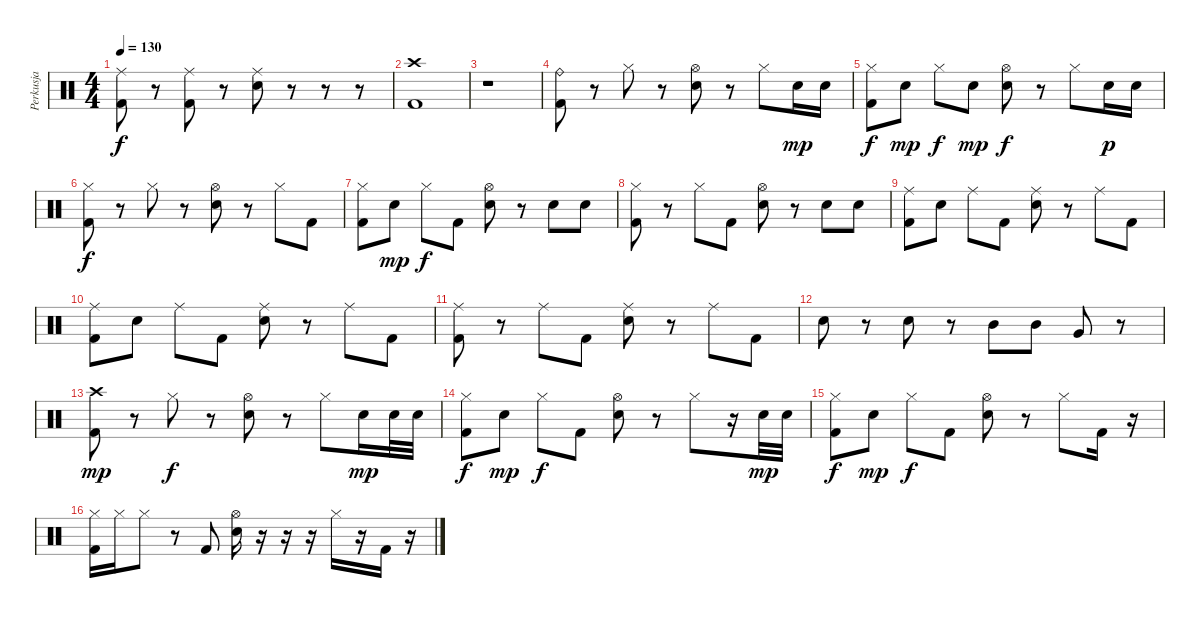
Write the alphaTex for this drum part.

\track ("Perkusja" "Perkusja") {instrument percussion}
\staff {score}
\articulation defaults
\ts (4 4)
\tempo 130
\clef neutral
\ks c
("Ride (middle)" "Kick (hit) 2").8{dy f} r.8 ("Ride (middle)" "Kick (hit) 2").8 r.8 ("Ride (middle)" "Snare (hit) 2").8 r.8 r.8 r.8 |
("Crash high (hit)" "Kick (hit) 2").1 |
r.1 |
("Ride (bell)" "Kick (hit) 2").8{volume 14} r.8 "Hi-Hat (closed)".8 r.8 ("Hi-Hat (open)" "Snare (hit) 2").8 r.8 "Hi-Hat (closed)".8 "Snare (hit) 2".16{dy mp} "Snare (hit) 2".16 |
("Hi-Hat (closed)" "Kick (hit) 2").8{dy f} "Snare (hit) 2".8{dy mp} "Hi-Hat (closed)".8{dy f} "Snare (hit) 2".8{dy mp} ("Hi-Hat (open)" "Snare (hit) 2").8{dy f} r.8 "Hi-Hat (closed)".8 "Snare (hit) 2".16{dy p} "Snare (hit) 2".16 |
("Hi-Hat (closed)" "Kick (hit) 2").8{dy f} r.8 "Hi-Hat (closed)".8 r.8 ("Hi-Hat (open)" "Snare (hit) 2").8 r.8 "Hi-Hat (closed)".8 "Kick (hit) 2".8 |
("Hi-Hat (closed)" "Kick (hit) 2").8 "Snare (hit) 2".8{dy mp} "Hi-Hat (closed)".8{dy f} "Kick (hit) 2".8 ("Hi-Hat (open)" "Snare (hit) 2").8 r.8 "Snare (hit) 2".8 "Snare (hit) 2".8 |
("Hi-Hat (closed)" "Kick (hit) 2").8 r.8 "Hi-Hat (closed)".8 "Kick (hit) 2".8 ("Hi-Hat (open)" "Snare (hit) 2").8 r.8 "Snare (hit) 2".8 "Snare (hit) 2".8 |
("Ride (middle)" "Kick (hit) 2").8 "Snare (hit) 2".8 "Ride (middle)".8 "Kick (hit) 2".8 ("Ride (middle)" "Snare (hit) 2").8 r.8 "Ride (middle)".8 "Kick (hit) 2".8 |
("Ride (middle)" "Kick (hit) 2").8 "Snare (hit) 2".8 "Ride (middle)".8 "Kick (hit) 2".8 ("Ride (middle)" "Snare (hit) 2").8 r.8 "Ride (middle)".8 "Kick (hit) 2".8 |
("Ride (middle)" "Kick (hit) 2").8 r.8 "Ride (middle)".8 "Kick (hit) 2".8 ("Ride (middle)" "Snare (hit) 2").8 r.8 "Ride (middle)".8 "Kick (hit) 2".8 |
"Snare (hit) 2".8 r.8 "Snare (hit) 2".8 r.8 "Mid Tom (hit)".8 "Mid Tom (hit)".8 "Very Low Tom (hit)".8 r.8 |
("Crash high (hit)" "Kick (hit) 2").8{dy mp} r.8 "Hi-Hat (closed)".8{dy f} r.8 ("Hi-Hat (open)" "Snare (hit) 2").8 r.8 "Hi-Hat (closed)".8 "Snare (hit) 2".16{dy mp} "Snare (hit) 2".32 "Snare (hit) 2".32 |
("Hi-Hat (closed)" "Kick (hit) 2").8{dy f} "Snare (hit) 2".8{dy mp} "Hi-Hat (closed)".8{dy f} "Kick (hit) 2".8 ("Hi-Hat (open)" "Snare (hit) 2").8 r.8 "Hi-Hat (closed)".8 r.16 "Snare (hit) 2".32{dy mp} "Snare (hit) 2".32 |
("Hi-Hat (closed)" "Kick (hit) 2").8{dy f} "Snare (hit) 2".8{dy mp} "Hi-Hat (closed)".8{dy f} "Kick (hit) 2".8 ("Hi-Hat (open)" "Snare (hit) 2").8 r.8 "Hi-Hat (closed)".8 "Kick (hit) 2".16 r.16 |
("Hi-Hat (closed)" "Kick (hit) 2").16 "Hi-Hat (closed)".16 "Hi-Hat (closed)".8 r.8 "Kick (hit) 2".8 ("Hi-Hat (open)" "Snare (hit) 2").16 r.16 r.16 r.16 "Hi-Hat (closed)".16 r.16 "Kick (hit) 2".16 r.16
